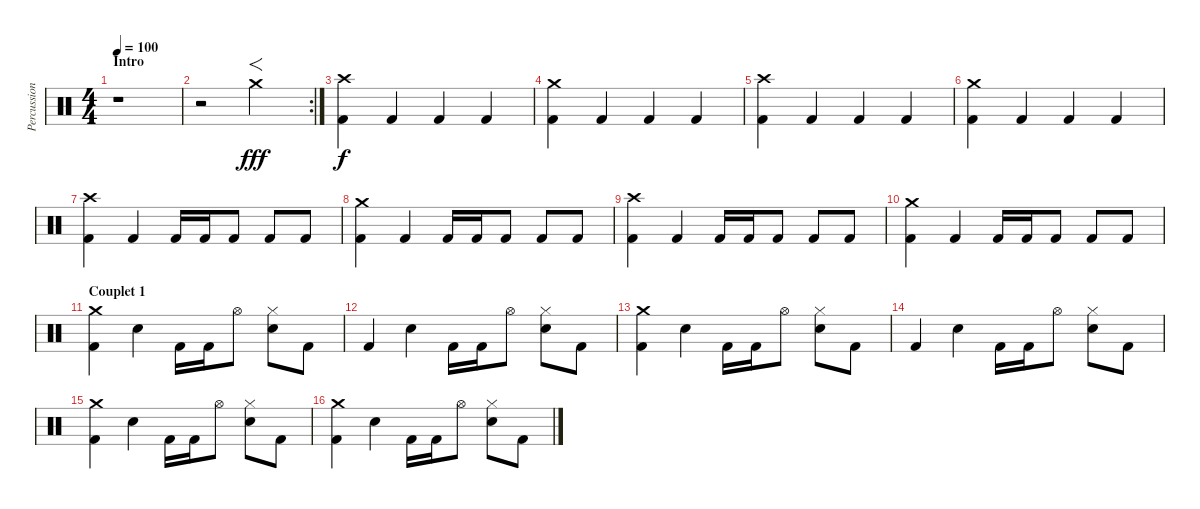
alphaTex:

\track ("Percussions" "Percussion") {instrument percussion}
\staff {score}
\articulation defaults
\ts (4 4)
\section ("" "Intro")
\tempo 100
\clef neutral
\ks c
r.1{dy fff} |
\rc 2
r.2 "Crash medium (hit)".2{f} |
("Crash high (hit)" "Kick (hit) 2").4{dy f} "Kick (hit) 2".4 "Kick (hit) 2".4 "Kick (hit) 2".4 |
("Crash medium (hit)" "Kick (hit) 2").4 "Kick (hit) 2".4 "Kick (hit) 2".4 "Kick (hit) 2".4 |
("Crash high (hit)" "Kick (hit) 2").4 "Kick (hit) 2".4 "Kick (hit) 2".4 "Kick (hit) 2".4 |
("Crash medium (hit)" "Kick (hit) 2").4 "Kick (hit) 2".4 "Kick (hit) 2".4 "Kick (hit) 2".4 |
("Crash high (hit)" "Kick (hit) 2").4 "Kick (hit) 2".4 "Kick (hit) 2".16 "Kick (hit) 2".16 "Kick (hit) 2".8 "Kick (hit) 2".8 "Kick (hit) 2".8 |
("Crash medium (hit)" "Kick (hit) 2").4 "Kick (hit) 2".4 "Kick (hit) 2".16 "Kick (hit) 2".16 "Kick (hit) 2".8 "Kick (hit) 2".8 "Kick (hit) 2".8 |
("Crash high (hit)" "Kick (hit) 2").4 "Kick (hit) 2".4 "Kick (hit) 2".16 "Kick (hit) 2".16 "Kick (hit) 2".8 "Kick (hit) 2".8 "Kick (hit) 2".8 |
("Crash medium (hit)" "Kick (hit) 2").4 "Kick (hit) 2".4 "Kick (hit) 2".16 "Kick (hit) 2".16 "Kick (hit) 2".8 "Kick (hit) 2".8 "Kick (hit) 2".8 |
\section ("" "Couplet 1")
("Crash medium (hit)" "Kick (hit) 2").4 "Snare (hit) 2".4 "Kick (hit) 2".16 "Kick (hit) 2".16 "Hi-Hat (open)".8 ("Hi-Hat (closed)" "Snare (hit) 2").8 "Kick (hit) 2".8 |
"Kick (hit) 2".4 "Snare (hit) 2".4 "Kick (hit) 2".16 "Kick (hit) 2".16 "Hi-Hat (open)".8 ("Hi-Hat (closed)" "Snare (hit) 2").8 "Kick (hit) 2".8 |
("Crash medium (hit)" "Kick (hit) 2").4 "Snare (hit) 2".4 "Kick (hit) 2".16 "Kick (hit) 2".16 "Hi-Hat (open)".8 ("Hi-Hat (closed)" "Snare (hit) 2").8 "Kick (hit) 2".8 |
"Kick (hit) 2".4 "Snare (hit) 2".4 "Kick (hit) 2".16 "Kick (hit) 2".16 "Hi-Hat (open)".8 ("Hi-Hat (closed)" "Snare (hit) 2").8 "Kick (hit) 2".8 |
("Crash medium (hit)" "Kick (hit) 2").4 "Snare (hit) 2".4 "Kick (hit) 2".16 "Kick (hit) 2".16 "Hi-Hat (open)".8 ("Hi-Hat (closed)" "Snare (hit) 2").8 "Kick (hit) 2".8 |
("Crash medium (hit)" "Kick (hit) 2").4 "Snare (hit) 2".4 "Kick (hit) 2".16 "Kick (hit) 2".16 "Hi-Hat (open)".8 ("Hi-Hat (closed)" "Snare (hit) 2").8 "Kick (hit) 2".8
